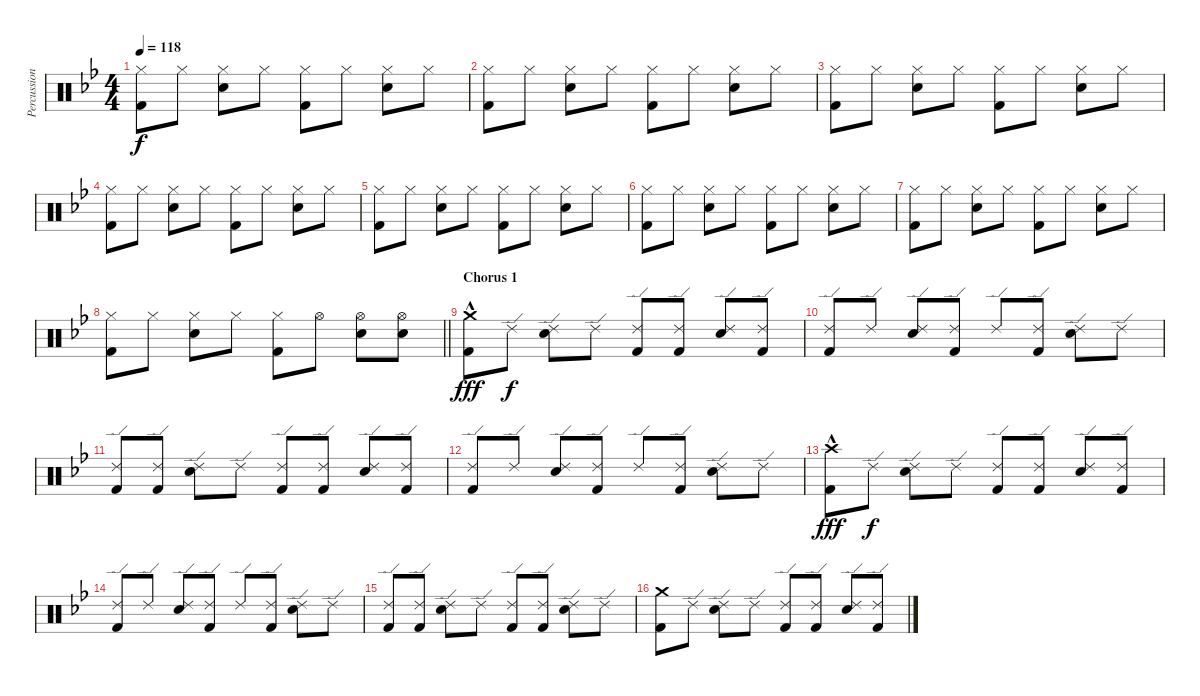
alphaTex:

\track ("Percussion" "Percussion") {instrument percussion}
\staff {score}
\articulation defaults
\ts (4 4)
\tempo 118
\clef neutral
\ks bb
("Hi-Hat (closed)" "Kick (hit) 2").8{dy f volume 12} "Hi-Hat (closed)".8 ("Hi-Hat (closed)" "Electric Snare (hit)").8 "Hi-Hat (closed)".8 ("Hi-Hat (closed)" "Kick (hit) 2").8 "Hi-Hat (closed)".8 ("Hi-Hat (closed)" "Electric Snare (hit)").8 "Hi-Hat (closed)".8 |
("Hi-Hat (closed)" "Kick (hit) 2").8 "Hi-Hat (closed)".8 ("Hi-Hat (closed)" "Electric Snare (hit)").8 "Hi-Hat (closed)".8 ("Hi-Hat (closed)" "Kick (hit) 2").8 "Hi-Hat (closed)".8 ("Hi-Hat (closed)" "Electric Snare (hit)").8 "Hi-Hat (closed)".8 |
("Hi-Hat (closed)" "Kick (hit) 2").8 "Hi-Hat (closed)".8 ("Hi-Hat (closed)" "Electric Snare (hit)").8 "Hi-Hat (closed)".8 ("Hi-Hat (closed)" "Kick (hit) 2").8 "Hi-Hat (closed)".8 ("Hi-Hat (closed)" "Electric Snare (hit)").8 "Hi-Hat (closed)".8 |
("Hi-Hat (closed)" "Kick (hit) 2").8 "Hi-Hat (closed)".8 ("Hi-Hat (closed)" "Electric Snare (hit)").8 "Hi-Hat (closed)".8 ("Hi-Hat (closed)" "Kick (hit) 2").8 "Hi-Hat (closed)".8 ("Hi-Hat (closed)" "Electric Snare (hit)").8 "Hi-Hat (closed)".8 |
("Hi-Hat (closed)" "Kick (hit) 2").8 "Hi-Hat (closed)".8 ("Hi-Hat (closed)" "Electric Snare (hit)").8 "Hi-Hat (closed)".8 ("Hi-Hat (closed)" "Kick (hit) 2").8 "Hi-Hat (closed)".8 ("Hi-Hat (closed)" "Electric Snare (hit)").8 "Hi-Hat (closed)".8 |
("Hi-Hat (closed)" "Kick (hit) 2").8 "Hi-Hat (closed)".8 ("Hi-Hat (closed)" "Electric Snare (hit)").8 "Hi-Hat (closed)".8 ("Hi-Hat (closed)" "Kick (hit) 2").8 "Hi-Hat (closed)".8 ("Hi-Hat (closed)" "Electric Snare (hit)").8 "Hi-Hat (closed)".8 |
("Hi-Hat (closed)" "Kick (hit) 2").8 "Hi-Hat (closed)".8 ("Hi-Hat (closed)" "Electric Snare (hit)").8 "Hi-Hat (closed)".8 ("Hi-Hat (closed)" "Kick (hit) 2").8 "Hi-Hat (closed)".8 ("Hi-Hat (closed)" "Electric Snare (hit)").8 "Hi-Hat (closed)".8 |
\barLineRight lightlight
("Hi-Hat (closed)" "Kick (hit) 2").8 "Hi-Hat (closed)".8 ("Hi-Hat (closed)" "Electric Snare (hit)").8 "Hi-Hat (closed)".8 ("Hi-Hat (closed)" "Kick (hit) 2").8 "Hi-Hat (open)".8 ("Hi-Hat (open)" "Electric Snare (hit)").8 ("Hi-Hat (open)" "Electric Snare (hit)").8 |
\section ("" "Chorus 1")
("Crash medium (hit)"{hac} "Kick (hit) 2").8{dy fff volume 16} "Ride (edge) 2".8{dy f} ("Ride (edge) 2" "Electric Snare (hit)").8 "Ride (edge) 2".8 ("Ride (edge) 2" "Kick (hit) 2").8 ("Ride (edge) 2" "Kick (hit) 2").8 ("Ride (edge) 2" "Electric Snare (hit)").8 ("Ride (edge) 2" "Kick (hit) 2").8 |
("Ride (edge) 2" "Kick (hit) 2").8 "Ride (edge) 2".8 ("Ride (edge) 2" "Electric Snare (hit)").8 ("Ride (edge) 2" "Kick (hit) 2").8 "Ride (edge) 2".8 ("Ride (edge) 2" "Kick (hit) 2").8 ("Ride (edge) 2" "Electric Snare (hit)").8 "Ride (edge) 2".8 |
("Ride (edge) 2" "Kick (hit) 2").8 ("Ride (edge) 2" "Kick (hit) 2").8 ("Ride (edge) 2" "Electric Snare (hit)").8 "Ride (edge) 2".8 ("Ride (edge) 2" "Kick (hit) 2").8 ("Ride (edge) 2" "Kick (hit) 2").8 ("Ride (edge) 2" "Electric Snare (hit)").8 ("Ride (edge) 2" "Kick (hit) 2").8 |
("Ride (edge) 2" "Kick (hit) 2").8 "Ride (edge) 2".8 ("Ride (edge) 2" "Electric Snare (hit)").8 ("Ride (edge) 2" "Kick (hit) 2").8 "Ride (edge) 2".8 ("Ride (edge) 2" "Kick (hit) 2").8 ("Ride (edge) 2" "Electric Snare (hit)").8 "Ride (edge) 2".8 |
("Crash high (hit)"{hac} "Kick (hit) 2").8{dy fff} "Ride (edge) 2".8{dy f} ("Ride (edge) 2" "Electric Snare (hit)").8 "Ride (edge) 2".8 ("Ride (edge) 2" "Kick (hit) 2").8 ("Ride (edge) 2" "Kick (hit) 2").8 ("Ride (edge) 2" "Electric Snare (hit)").8 ("Ride (edge) 2" "Kick (hit) 2").8 |
("Ride (edge) 2" "Kick (hit) 2").8 "Ride (edge) 2".8 ("Ride (edge) 2" "Electric Snare (hit)").8 ("Ride (edge) 2" "Kick (hit) 2").8 "Ride (edge) 2".8 ("Ride (edge) 2" "Kick (hit) 2").8 ("Ride (edge) 2" "Electric Snare (hit)").8 "Ride (edge) 2".8 |
("Ride (edge) 2" "Kick (hit) 2").8 ("Ride (edge) 2" "Kick (hit) 2").8 ("Ride (edge) 2" "Electric Snare (hit)").8 "Ride (edge) 2".8 ("Ride (edge) 2" "Kick (hit) 2").8 ("Ride (edge) 2" "Kick (hit) 2").8 ("Ride (edge) 2" "Electric Snare (hit)").8 "Ride (edge) 2".8 |
("Crash medium (hit)" "Kick (hit) 2").8 "Ride (edge) 2".8 ("Ride (edge) 2" "Electric Snare (hit)").8 "Ride (edge) 2".8 ("Ride (edge) 2" "Kick (hit) 2").8 ("Ride (edge) 2" "Kick (hit) 2").8 ("Ride (edge) 2" "Electric Snare (hit)").8 ("Ride (edge) 2" "Kick (hit) 2").8
